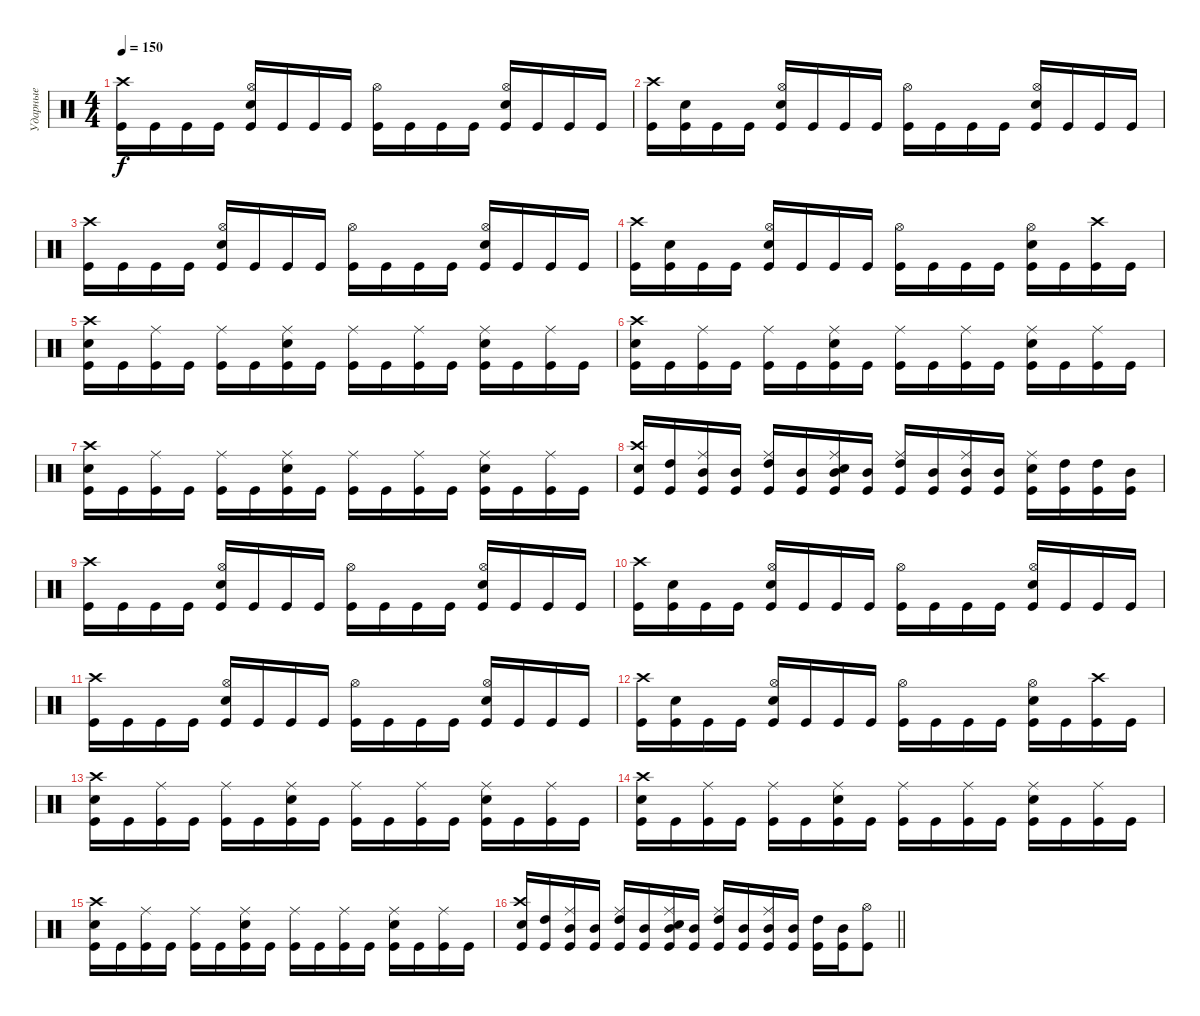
\track ("Ударные" "Ударные") {instrument percussion}
\staff {score}
\articulation defaults
\ts (4 4)
\section ("" " ")
\tempo 150
\clef neutral
\ks c
("Kick (hit)" "Crash high (hit)").16{dy f} "Kick (hit)".16 "Kick (hit)".16 "Kick (hit)".16 ("Kick (hit)" "Hi-Hat (open)" "Snare (hit) 2").16 "Kick (hit)".16 "Kick (hit)".16 "Kick (hit)".16 ("Kick (hit)" "Hi-Hat (open)").16 "Kick (hit)".16 "Kick (hit)".16 "Kick (hit)".16 ("Kick (hit)" "Hi-Hat (open)" "Snare (hit) 2").16 "Kick (hit)".16 "Kick (hit)".16 "Kick (hit)".16 |
("Kick (hit)" "Crash high (hit)").16 ("Kick (hit)" "Snare (hit) 2").16 "Kick (hit)".16 "Kick (hit)".16 ("Kick (hit)" "Hi-Hat (open)" "Snare (hit) 2").16 "Kick (hit)".16 "Kick (hit)".16 "Kick (hit)".16 ("Kick (hit)" "Hi-Hat (open)").16 "Kick (hit)".16 "Kick (hit)".16 "Kick (hit)".16 ("Kick (hit)" "Hi-Hat (open)" "Snare (hit) 2").16 "Kick (hit)".16 "Kick (hit)".16 "Kick (hit)".16 |
("Kick (hit)" "Crash high (hit)").16 "Kick (hit)".16 "Kick (hit)".16 "Kick (hit)".16 ("Kick (hit)" "Hi-Hat (open)" "Snare (hit) 2").16 "Kick (hit)".16 "Kick (hit)".16 "Kick (hit)".16 ("Kick (hit)" "Hi-Hat (open)").16 "Kick (hit)".16 "Kick (hit)".16 "Kick (hit)".16 ("Kick (hit)" "Hi-Hat (open)" "Snare (hit) 2").16 "Kick (hit)".16 "Kick (hit)".16 "Kick (hit)".16 |
("Kick (hit)" "Crash high (hit)").16 ("Kick (hit)" "Snare (hit) 2").16 "Kick (hit)".16 "Kick (hit)".16 ("Kick (hit)" "Hi-Hat (open)" "Snare (hit) 2").16 "Kick (hit)".16 "Kick (hit)".16 "Kick (hit)".16 ("Kick (hit)" "Hi-Hat (open)").16 "Kick (hit)".16 "Kick (hit)".16 "Kick (hit)".16 ("Kick (hit)" "Hi-Hat (open)" "Snare (hit) 2").16 "Kick (hit)".16 ("Kick (hit)" "Crash high (hit)").16 "Kick (hit)".16 |
("Kick (hit)" "Crash high (hit)" "Snare (hit) 2").16 "Kick (hit)".16 ("Kick (hit)" "Ride (middle)").16 "Kick (hit)".16 ("Kick (hit)" "Ride (middle)").16 "Kick (hit)".16 ("Kick (hit)" "Snare (hit) 2" "Ride (middle)").16 "Kick (hit)".16 ("Kick (hit)" "Ride (middle)").16 "Kick (hit)".16 ("Kick (hit)" "Ride (middle)").16 "Kick (hit)".16 ("Kick (hit)" "Ride (middle)" "Snare (hit) 2").16 "Kick (hit)".16 ("Kick (hit)" "Ride (middle)").16 "Kick (hit)".16 |
("Kick (hit)" "Crash high (hit)" "Snare (hit) 2").16 "Kick (hit)".16 ("Kick (hit)" "Ride (middle)").16 "Kick (hit)".16 ("Kick (hit)" "Ride (middle)").16 "Kick (hit)".16 ("Kick (hit)" "Snare (hit) 2" "Ride (middle)").16 "Kick (hit)".16 ("Kick (hit)" "Ride (middle)").16 "Kick (hit)".16 ("Kick (hit)" "Ride (middle)").16 "Kick (hit)".16 ("Kick (hit)" "Ride (middle)" "Snare (hit) 2").16 "Kick (hit)".16 ("Kick (hit)" "Ride (middle)").16 "Kick (hit)".16 |
("Kick (hit)" "Crash high (hit)" "Snare (hit) 2").16 "Kick (hit)".16 ("Kick (hit)" "Ride (middle)").16 "Kick (hit)".16 ("Kick (hit)" "Ride (middle)").16 "Kick (hit)".16 ("Kick (hit)" "Snare (hit) 2" "Ride (middle)").16 "Kick (hit)".16 ("Kick (hit)" "Ride (middle)").16 "Kick (hit)".16 ("Kick (hit)" "Ride (middle)").16 "Kick (hit)".16 ("Kick (hit)" "Ride (middle)" "Snare (hit) 2").16 "Kick (hit)".16 ("Kick (hit)" "Ride (middle)").16 "Kick (hit)".16 |
("Kick (hit)" "Crash high (hit)" "Snare (hit) 2").16 ("Kick (hit)" "High Tom (hit)").16 ("Kick (hit)" "Ride (middle)" "Mid Tom (hit)").16 ("Kick (hit)" "Mid Tom (hit)").16 ("Kick (hit)" "Ride (middle)" "High Tom (hit)").16 ("Kick (hit)" "Mid Tom (hit)").16 ("Kick (hit)" "Snare (hit) 2" "Ride (middle)" "Mid Tom (hit)").16 ("Kick (hit)" "Mid Tom (hit)").16 ("Kick (hit)" "Ride (middle)" "High Tom (hit)").16 ("Kick (hit)" "Mid Tom (hit)").16 ("Kick (hit)" "Ride (middle)" "Mid Tom (hit)").16 ("Kick (hit)" "Mid Tom (hit)").16 ("Kick (hit)" "Ride (middle)" "Snare (hit) 2").16 ("Kick (hit)" "High Tom (hit)").16 ("Kick (hit)" "High Tom (hit)").16 ("Kick (hit)" "Mid Tom (hit)").16 |
("Kick (hit)" "Crash high (hit)").16 "Kick (hit)".16 "Kick (hit)".16 "Kick (hit)".16 ("Kick (hit)" "Hi-Hat (open)" "Snare (hit) 2").16 "Kick (hit)".16 "Kick (hit)".16 "Kick (hit)".16 ("Kick (hit)" "Hi-Hat (open)").16 "Kick (hit)".16 "Kick (hit)".16 "Kick (hit)".16 ("Kick (hit)" "Hi-Hat (open)" "Snare (hit) 2").16 "Kick (hit)".16 "Kick (hit)".16 "Kick (hit)".16 |
("Kick (hit)" "Crash high (hit)").16 ("Kick (hit)" "Snare (hit) 2").16 "Kick (hit)".16 "Kick (hit)".16 ("Kick (hit)" "Hi-Hat (open)" "Snare (hit) 2").16 "Kick (hit)".16 "Kick (hit)".16 "Kick (hit)".16 ("Kick (hit)" "Hi-Hat (open)").16 "Kick (hit)".16 "Kick (hit)".16 "Kick (hit)".16 ("Kick (hit)" "Hi-Hat (open)" "Snare (hit) 2").16 "Kick (hit)".16 "Kick (hit)".16 "Kick (hit)".16 |
("Kick (hit)" "Crash high (hit)").16 "Kick (hit)".16 "Kick (hit)".16 "Kick (hit)".16 ("Kick (hit)" "Hi-Hat (open)" "Snare (hit) 2").16 "Kick (hit)".16 "Kick (hit)".16 "Kick (hit)".16 ("Kick (hit)" "Hi-Hat (open)").16 "Kick (hit)".16 "Kick (hit)".16 "Kick (hit)".16 ("Kick (hit)" "Hi-Hat (open)" "Snare (hit) 2").16 "Kick (hit)".16 "Kick (hit)".16 "Kick (hit)".16 |
("Kick (hit)" "Crash high (hit)").16 ("Kick (hit)" "Snare (hit) 2").16 "Kick (hit)".16 "Kick (hit)".16 ("Kick (hit)" "Hi-Hat (open)" "Snare (hit) 2").16 "Kick (hit)".16 "Kick (hit)".16 "Kick (hit)".16 ("Kick (hit)" "Hi-Hat (open)").16 "Kick (hit)".16 "Kick (hit)".16 "Kick (hit)".16 ("Kick (hit)" "Hi-Hat (open)" "Snare (hit) 2").16 "Kick (hit)".16 ("Kick (hit)" "Crash high (hit)").16 "Kick (hit)".16 |
("Kick (hit)" "Crash high (hit)" "Snare (hit) 2").16 "Kick (hit)".16 ("Kick (hit)" "Ride (middle)").16 "Kick (hit)".16 ("Kick (hit)" "Ride (middle)").16 "Kick (hit)".16 ("Kick (hit)" "Snare (hit) 2" "Ride (middle)").16 "Kick (hit)".16 ("Kick (hit)" "Ride (middle)").16 "Kick (hit)".16 ("Kick (hit)" "Ride (middle)").16 "Kick (hit)".16 ("Kick (hit)" "Ride (middle)" "Snare (hit) 2").16 "Kick (hit)".16 ("Kick (hit)" "Ride (middle)").16 "Kick (hit)".16 |
("Kick (hit)" "Crash high (hit)" "Snare (hit) 2").16 "Kick (hit)".16 ("Kick (hit)" "Ride (middle)").16 "Kick (hit)".16 ("Kick (hit)" "Ride (middle)").16 "Kick (hit)".16 ("Kick (hit)" "Snare (hit) 2" "Ride (middle)").16 "Kick (hit)".16 ("Kick (hit)" "Ride (middle)").16 "Kick (hit)".16 ("Kick (hit)" "Ride (middle)").16 "Kick (hit)".16 ("Kick (hit)" "Ride (middle)" "Snare (hit) 2").16 "Kick (hit)".16 ("Kick (hit)" "Ride (middle)").16 "Kick (hit)".16 |
("Kick (hit)" "Crash high (hit)" "Snare (hit) 2").16 "Kick (hit)".16 ("Kick (hit)" "Ride (middle)").16 "Kick (hit)".16 ("Kick (hit)" "Ride (middle)").16 "Kick (hit)".16 ("Kick (hit)" "Snare (hit) 2" "Ride (middle)").16 "Kick (hit)".16 ("Kick (hit)" "Ride (middle)").16 "Kick (hit)".16 ("Kick (hit)" "Ride (middle)").16 "Kick (hit)".16 ("Kick (hit)" "Ride (middle)" "Snare (hit) 2").16 "Kick (hit)".16 ("Kick (hit)" "Ride (middle)").16 "Kick (hit)".16 |
\barLineRight lightlight
("Kick (hit)" "Crash high (hit)" "Snare (hit) 2").16 ("Kick (hit)" "High Tom (hit)").16 ("Kick (hit)" "Ride (middle)" "Mid Tom (hit)").16 ("Kick (hit)" "Mid Tom (hit)").16 ("Kick (hit)" "Ride (middle)" "High Tom (hit)").16 ("Kick (hit)" "Mid Tom (hit)").16 ("Kick (hit)" "Snare (hit) 2" "Ride (middle)" "Mid Tom (hit)").16 ("Kick (hit)" "Mid Tom (hit)").16 ("Kick (hit)" "Ride (middle)" "High Tom (hit)").16 ("Kick (hit)" "Mid Tom (hit)").16 ("Kick (hit)" "Ride (middle)" "Mid Tom (hit)").16 ("Kick (hit)" "Mid Tom (hit)").16 ("High Tom (hit)" "Kick (hit)").16 ("Mid Tom (hit)" "Kick (hit)").16 ("Kick (hit)" "Hi-Hat (open)").8
